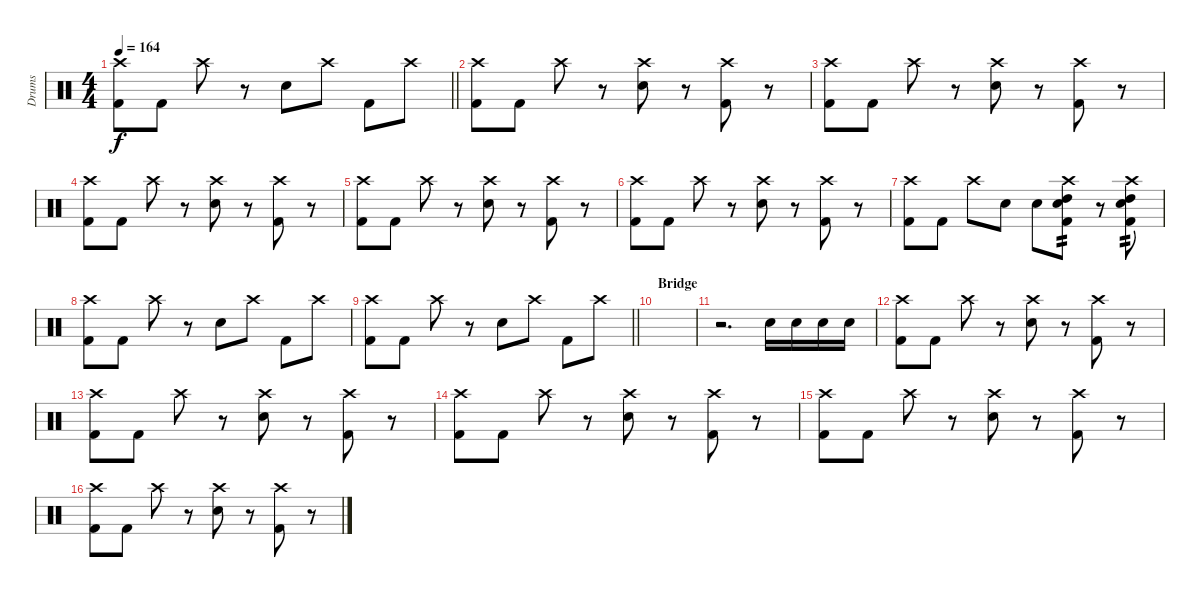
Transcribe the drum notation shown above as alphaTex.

\track ("Drums" "Drums") {instrument percussion}
\staff {score}
\articulation defaults
\ts (4 4)
\tempo 164
\clef neutral
\barLineRight lightlight
\ks c
("Crash high (hit)" "Kick (hit) 2").8{dy f} "Kick (hit) 2".8 "Crash high (hit)".8 r.8 "Electric Snare (hit)".8 "Crash high (hit)".8 "Kick (hit) 2".8 "Crash high (hit)".8 |
("Crash high (hit)" "Kick (hit) 2").8 "Kick (hit) 2".8 "Crash high (hit)".8 r.8 ("Crash high (hit)" "Electric Snare (hit)").8 r.8 ("Crash high (hit)" "Kick (hit) 2").8 r.8 |
("Crash high (hit)" "Kick (hit) 2").8 "Kick (hit) 2".8 "Crash high (hit)".8 r.8 ("Crash high (hit)" "Electric Snare (hit)").8 r.8 ("Crash high (hit)" "Kick (hit) 2").8 r.8 |
("Crash high (hit)" "Kick (hit) 2").8 "Kick (hit) 2".8 "Crash high (hit)".8 r.8 ("Crash high (hit)" "Electric Snare (hit)").8 r.8 ("Crash high (hit)" "Kick (hit) 2").8 r.8 |
("Crash high (hit)" "Kick (hit) 2").8 "Kick (hit) 2".8 "Crash high (hit)".8 r.8 ("Crash high (hit)" "Electric Snare (hit)").8 r.8 ("Crash high (hit)" "Kick (hit) 2").8 r.8 |
("Crash high (hit)" "Kick (hit) 2").8 "Kick (hit) 2".8 "Crash high (hit)".8 r.8 ("Crash high (hit)" "Electric Snare (hit)").8 r.8 ("Crash high (hit)" "Kick (hit) 2").8 r.8 |
("Crash high (hit)" "Kick (hit) 2").8 "Kick (hit) 2".8 "Crash high (hit)".8 "Electric Snare (hit)".8 "Snare (hit) 2".8 ("Crash high (hit)" "High Tom (hit)" "Snare (hit) 2" "Kick (hit) 2").8{tp 2} r.8 ("Crash high (hit)" "High Tom (hit)" "Electric Snare (hit)" "Kick (hit) 2").8{tp 2} |
("Crash high (hit)" "Kick (hit) 2").8 "Kick (hit) 2".8 "Crash high (hit)".8 r.8 "Electric Snare (hit)".8 "Crash high (hit)".8 "Kick (hit) 2".8 "Crash high (hit)".8 |
\barLineRight lightlight
("Crash high (hit)" "Kick (hit) 2").8 "Kick (hit) 2".8 "Crash high (hit)".8 r.8 "Electric Snare (hit)".8 "Crash high (hit)".8 "Kick (hit) 2".8 "Crash high (hit)".8 |
\section ("" "Bridge")
|
r.2{d} "Snare (hit) 2".16 "Snare (hit) 2".16 "Snare (hit) 2".16 "Snare (hit) 2".16 |
("Crash high (hit)" "Kick (hit) 2").8 "Kick (hit) 2".8 "Crash high (hit)".8 r.8 ("Crash high (hit)" "Electric Snare (hit)").8 r.8 ("Crash high (hit)" "Kick (hit) 2").8 r.8 |
("Crash high (hit)" "Kick (hit) 2").8 "Kick (hit) 2".8 "Crash high (hit)".8 r.8 ("Crash high (hit)" "Electric Snare (hit)").8 r.8 ("Crash high (hit)" "Kick (hit) 2").8 r.8 |
("Crash high (hit)" "Kick (hit) 2").8 "Kick (hit) 2".8 "Crash high (hit)".8 r.8 ("Crash high (hit)" "Electric Snare (hit)").8 r.8 ("Crash high (hit)" "Kick (hit) 2").8 r.8 |
("Crash high (hit)" "Kick (hit) 2").8 "Kick (hit) 2".8 "Crash high (hit)".8 r.8 ("Crash high (hit)" "Electric Snare (hit)").8 r.8 ("Crash high (hit)" "Kick (hit) 2").8 r.8 |
("Crash high (hit)" "Kick (hit) 2").8 "Kick (hit) 2".8 "Crash high (hit)".8 r.8 ("Crash high (hit)" "Electric Snare (hit)").8 r.8 ("Crash high (hit)" "Kick (hit) 2").8 r.8
